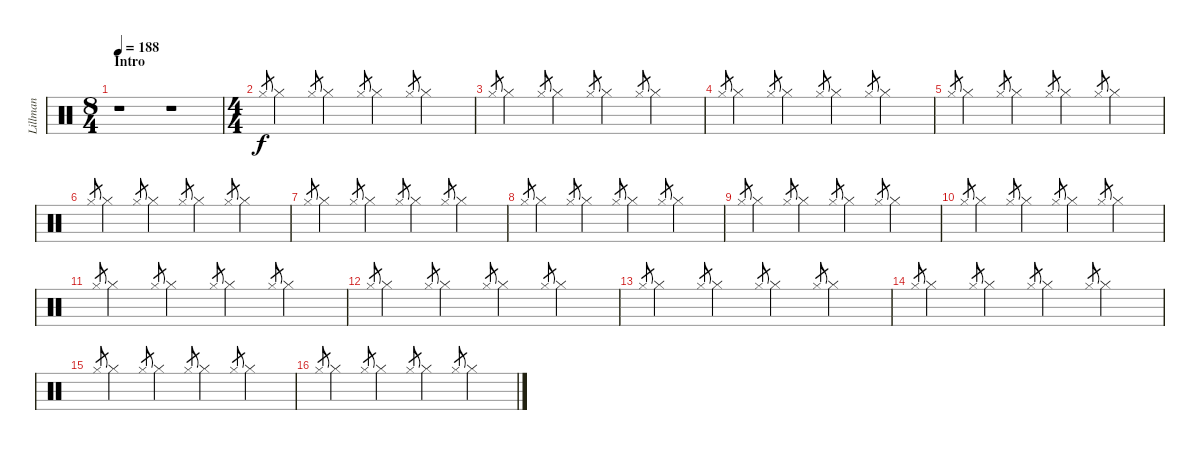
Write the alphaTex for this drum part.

\track ("Lillman" "Lillman") {instrument percussion}
\staff {score}
\articulation defaults
\ts (8 4)
\section ("" "Intro")
\tempo 188
\clef neutral
\ks c
r.1{dy f} r.1 |
\ts (4 4)
"Hi-Hat (closed)".8{gr} "Hi-Hat (closed)".4 "Hi-Hat (closed)".8{gr} "Hi-Hat (closed)".4 "Hi-Hat (closed)".8{gr} "Hi-Hat (closed)".4 "Hi-Hat (closed)".8{gr} "Hi-Hat (closed)".4 |
"Hi-Hat (closed)".8{gr} "Hi-Hat (closed)".4 "Hi-Hat (closed)".8{gr} "Hi-Hat (closed)".4 "Hi-Hat (closed)".8{gr} "Hi-Hat (closed)".4 "Hi-Hat (closed)".8{gr} "Hi-Hat (closed)".4 |
"Hi-Hat (closed)".8{gr} "Hi-Hat (closed)".4 "Hi-Hat (closed)".8{gr} "Hi-Hat (closed)".4 "Hi-Hat (closed)".8{gr} "Hi-Hat (closed)".4 "Hi-Hat (closed)".8{gr} "Hi-Hat (closed)".4 |
"Hi-Hat (closed)".8{gr} "Hi-Hat (closed)".4 "Hi-Hat (closed)".8{gr} "Hi-Hat (closed)".4 "Hi-Hat (closed)".8{gr} "Hi-Hat (closed)".4 "Hi-Hat (closed)".8{gr} "Hi-Hat (closed)".4 |
"Hi-Hat (closed)".8{gr} "Hi-Hat (closed)".4 "Hi-Hat (closed)".8{gr} "Hi-Hat (closed)".4 "Hi-Hat (closed)".8{gr} "Hi-Hat (closed)".4 "Hi-Hat (closed)".8{gr} "Hi-Hat (closed)".4 |
"Hi-Hat (closed)".8{gr} "Hi-Hat (closed)".4 "Hi-Hat (closed)".8{gr} "Hi-Hat (closed)".4 "Hi-Hat (closed)".8{gr} "Hi-Hat (closed)".4 "Hi-Hat (closed)".8{gr} "Hi-Hat (closed)".4 |
"Hi-Hat (closed)".8{gr} "Hi-Hat (closed)".4 "Hi-Hat (closed)".8{gr} "Hi-Hat (closed)".4 "Hi-Hat (closed)".8{gr} "Hi-Hat (closed)".4 "Hi-Hat (closed)".8{gr} "Hi-Hat (closed)".4 |
"Hi-Hat (closed)".8{gr} "Hi-Hat (closed)".4 "Hi-Hat (closed)".8{gr} "Hi-Hat (closed)".4 "Hi-Hat (closed)".8{gr} "Hi-Hat (closed)".4 "Hi-Hat (closed)".8{gr} "Hi-Hat (closed)".4 |
"Hi-Hat (closed)".8{gr} "Hi-Hat (closed)".4 "Hi-Hat (closed)".8{gr} "Hi-Hat (closed)".4 "Hi-Hat (closed)".8{gr} "Hi-Hat (closed)".4 "Hi-Hat (closed)".8{gr} "Hi-Hat (closed)".4 |
"Hi-Hat (closed)".8{gr} "Hi-Hat (closed)".4 "Hi-Hat (closed)".8{gr} "Hi-Hat (closed)".4 "Hi-Hat (closed)".8{gr} "Hi-Hat (closed)".4 "Hi-Hat (closed)".8{gr} "Hi-Hat (closed)".4 |
"Hi-Hat (closed)".8{gr} "Hi-Hat (closed)".4 "Hi-Hat (closed)".8{gr} "Hi-Hat (closed)".4 "Hi-Hat (closed)".8{gr} "Hi-Hat (closed)".4 "Hi-Hat (closed)".8{gr} "Hi-Hat (closed)".4 |
"Hi-Hat (closed)".8{gr} "Hi-Hat (closed)".4 "Hi-Hat (closed)".8{gr} "Hi-Hat (closed)".4 "Hi-Hat (closed)".8{gr} "Hi-Hat (closed)".4 "Hi-Hat (closed)".8{gr} "Hi-Hat (closed)".4 |
"Hi-Hat (closed)".8{gr} "Hi-Hat (closed)".4 "Hi-Hat (closed)".8{gr} "Hi-Hat (closed)".4 "Hi-Hat (closed)".8{gr} "Hi-Hat (closed)".4 "Hi-Hat (closed)".8{gr} "Hi-Hat (closed)".4 |
"Hi-Hat (closed)".8{gr} "Hi-Hat (closed)".4 "Hi-Hat (closed)".8{gr} "Hi-Hat (closed)".4 "Hi-Hat (closed)".8{gr} "Hi-Hat (closed)".4 "Hi-Hat (closed)".8{gr} "Hi-Hat (closed)".4 |
"Hi-Hat (closed)".8{gr} "Hi-Hat (closed)".4 "Hi-Hat (closed)".8{gr} "Hi-Hat (closed)".4 "Hi-Hat (closed)".8{gr} "Hi-Hat (closed)".4 "Hi-Hat (closed)".8{gr} "Hi-Hat (closed)".4
